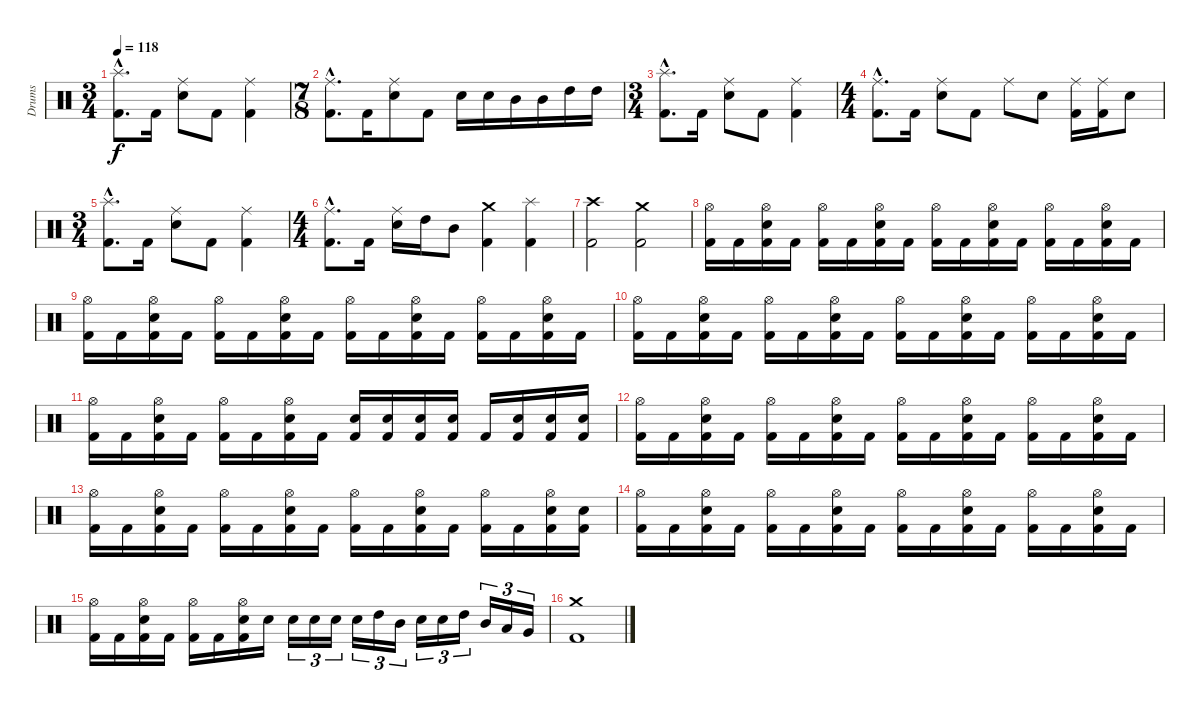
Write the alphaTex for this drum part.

\track ("Drums" "Drums") {instrument percussion}
\staff {score}
\articulation defaults
\ts (3 4)
\tempo 118
\clef neutral
\ks c
("Splash (hit)"{hac} "Kick (hit) 2"{hac}).8{d dy f} "Kick (hit) 2".16 ("Ride (middle)" "Snare (hit) 2").8 "Kick (hit) 2".8 ("Ride (middle)" "Kick (hit) 2").4 |
\ts (7 8)
("Ride (middle)"{hac} "Kick (hit) 2"{hac}).8{d} "Kick (hit) 2".16 ("Ride (middle)" "Snare (hit) 2").8 "Kick (hit) 2".8 "Snare (hit) 2".16 "Snare (hit) 2".16 "Mid Tom (hit)".16 "Mid Tom (hit)".16 "High Tom (hit)".16 "High Tom (hit)".16 |
\ts (3 4)
("Splash (hit)"{hac} "Kick (hit) 2"{hac}).8{d} "Kick (hit) 2".16 ("Ride (middle)" "Snare (hit) 2").8 "Kick (hit) 2".8 ("Ride (middle)" "Kick (hit) 2").4 |
\ts (4 4)
("Ride (middle)"{hac} "Kick (hit) 2"{hac}).8{d} "Kick (hit) 2".16 ("Ride (middle)" "Snare (hit) 2").8 "Kick (hit) 2".8 "Ride (middle)".8 "Snare (hit) 2".8 ("Ride (middle)" "Kick (hit) 2").16 ("Ride (middle)" "Kick (hit) 2").16 "Snare (hit) 2".8 |
\ts (3 4)
("Splash (hit)"{hac} "Kick (hit) 2"{hac}).8{d} "Kick (hit) 2".16 ("Ride (middle)" "Snare (hit) 2").8 "Kick (hit) 2".8 ("Ride (middle)" "Kick (hit) 2").4 |
\ts (4 4)
("Ride (middle)"{hac} "Kick (hit) 2"{hac}).8{d} "Kick (hit) 2".16 ("Ride (middle)" "Snare (hit) 2").16 "High Tom (hit)".16 "Mid Tom (hit)".8 ("Crash medium (hit)" "Kick (hit) 2").4 ("Splash (hit)" "Kick (hit) 2").4 |
("Crash high (hit)" "Kick (hit) 2").2 ("Crash medium (hit)" "Kick (hit) 2").2 |
("Hi-Hat (open)" "Kick (hit) 2").16 "Kick (hit) 2".16 ("Hi-Hat (open)" "Snare (hit) 2" "Kick (hit) 2").16 "Kick (hit) 2".16 ("Hi-Hat (open)" "Kick (hit) 2").16 "Kick (hit) 2".16 ("Hi-Hat (open)" "Snare (hit) 2" "Kick (hit) 2").16 "Kick (hit) 2".16 ("Hi-Hat (open)" "Kick (hit) 2").16 "Kick (hit) 2".16 ("Hi-Hat (open)" "Snare (hit) 2" "Kick (hit) 2").16 "Kick (hit) 2".16 ("Hi-Hat (open)" "Kick (hit) 2").16 "Kick (hit) 2".16 ("Hi-Hat (open)" "Snare (hit) 2" "Kick (hit) 2").16 "Kick (hit) 2".16 |
("Hi-Hat (open)" "Kick (hit) 2").16 "Kick (hit) 2".16 ("Hi-Hat (open)" "Snare (hit) 2" "Kick (hit) 2").16 "Kick (hit) 2".16 ("Hi-Hat (open)" "Kick (hit) 2").16 "Kick (hit) 2".16 ("Hi-Hat (open)" "Snare (hit) 2" "Kick (hit) 2").16 "Kick (hit) 2".16 ("Hi-Hat (open)" "Kick (hit) 2").16 "Kick (hit) 2".16 ("Hi-Hat (open)" "Snare (hit) 2" "Kick (hit) 2").16 "Kick (hit) 2".16 ("Hi-Hat (open)" "Kick (hit) 2").16 "Kick (hit) 2".16 ("Hi-Hat (open)" "Snare (hit) 2" "Kick (hit) 2").16 "Kick (hit) 2".16 |
("Hi-Hat (open)" "Kick (hit) 2").16 "Kick (hit) 2".16 ("Hi-Hat (open)" "Snare (hit) 2" "Kick (hit) 2").16 "Kick (hit) 2".16 ("Hi-Hat (open)" "Kick (hit) 2").16 "Kick (hit) 2".16 ("Hi-Hat (open)" "Snare (hit) 2" "Kick (hit) 2").16 "Kick (hit) 2".16 ("Hi-Hat (open)" "Kick (hit) 2").16 "Kick (hit) 2".16 ("Hi-Hat (open)" "Snare (hit) 2" "Kick (hit) 2").16 "Kick (hit) 2".16 ("Hi-Hat (open)" "Kick (hit) 2").16 "Kick (hit) 2".16 ("Hi-Hat (open)" "Snare (hit) 2" "Kick (hit) 2").16 "Kick (hit) 2".16 |
("Hi-Hat (open)" "Kick (hit) 2").16 "Kick (hit) 2".16 ("Hi-Hat (open)" "Snare (hit) 2" "Kick (hit) 2").16 "Kick (hit) 2".16 ("Hi-Hat (open)" "Kick (hit) 2").16 "Kick (hit) 2".16 ("Hi-Hat (open)" "Snare (hit) 2" "Kick (hit) 2").16 "Kick (hit) 2".16 ("Snare (hit) 2" "Kick (hit) 2").16 ("Snare (hit) 2" "Kick (hit) 2").16 ("Snare (hit) 2" "Kick (hit) 2").16 ("Snare (hit) 2" "Kick (hit) 2").16 "Kick (hit) 2".16 ("Snare (hit) 2" "Kick (hit) 2").16 ("Snare (hit) 2" "Kick (hit) 2").16 ("Snare (hit) 2" "Kick (hit) 2").16 |
("Hi-Hat (open)" "Kick (hit) 2").16 "Kick (hit) 2".16 ("Hi-Hat (open)" "Snare (hit) 2" "Kick (hit) 2").16 "Kick (hit) 2".16 ("Hi-Hat (open)" "Kick (hit) 2").16 "Kick (hit) 2".16 ("Hi-Hat (open)" "Snare (hit) 2" "Kick (hit) 2").16 "Kick (hit) 2".16 ("Hi-Hat (open)" "Kick (hit) 2").16 "Kick (hit) 2".16 ("Hi-Hat (open)" "Snare (hit) 2" "Kick (hit) 2").16 "Kick (hit) 2".16 ("Hi-Hat (open)" "Kick (hit) 2").16 "Kick (hit) 2".16 ("Hi-Hat (open)" "Snare (hit) 2" "Kick (hit) 2").16 "Kick (hit) 2".16 |
("Hi-Hat (open)" "Kick (hit) 2").16 "Kick (hit) 2".16 ("Hi-Hat (open)" "Snare (hit) 2" "Kick (hit) 2").16 "Kick (hit) 2".16 ("Hi-Hat (open)" "Kick (hit) 2").16 "Kick (hit) 2".16 ("Hi-Hat (open)" "Snare (hit) 2" "Kick (hit) 2").16 "Kick (hit) 2".16 ("Hi-Hat (open)" "Kick (hit) 2").16 "Kick (hit) 2".16 ("Hi-Hat (open)" "Snare (hit) 2" "Kick (hit) 2").16 "Kick (hit) 2".16 ("Hi-Hat (open)" "Kick (hit) 2").16 "Kick (hit) 2".16 ("Hi-Hat (open)" "Snare (hit) 2" "Kick (hit) 2").16 ("Snare (hit) 2" "Kick (hit) 2").16 |
("Hi-Hat (open)" "Kick (hit) 2").16 "Kick (hit) 2".16 ("Hi-Hat (open)" "Snare (hit) 2" "Kick (hit) 2").16 "Kick (hit) 2".16 ("Hi-Hat (open)" "Kick (hit) 2").16 "Kick (hit) 2".16 ("Hi-Hat (open)" "Snare (hit) 2" "Kick (hit) 2").16 "Kick (hit) 2".16 ("Hi-Hat (open)" "Kick (hit) 2").16 "Kick (hit) 2".16 ("Hi-Hat (open)" "Snare (hit) 2" "Kick (hit) 2").16 "Kick (hit) 2".16 ("Hi-Hat (open)" "Kick (hit) 2").16 "Kick (hit) 2".16 ("Hi-Hat (open)" "Snare (hit) 2" "Kick (hit) 2").16 "Kick (hit) 2".16 |
("Hi-Hat (open)" "Kick (hit) 2").16 "Kick (hit) 2".16 ("Hi-Hat (open)" "Snare (hit) 2" "Kick (hit) 2").16 "Kick (hit) 2".16 ("Hi-Hat (open)" "Kick (hit) 2").16 "Kick (hit) 2".16 ("Hi-Hat (open)" "Snare (hit) 2" "Kick (hit) 2").16 "Snare (hit) 2".16 "Snare (hit) 2".16{tu (3 2)} "Snare (hit) 2".16{tu (3 2)} "Snare (hit) 2".16{tu (3 2)} "Snare (hit) 2".16{tu (3 2)} "High Tom (hit)".16{tu (3 2)} "Mid Tom (hit)".16{tu (3 2)} "Snare (hit) 2".16{tu (3 2)} "Snare (hit) 2".16{tu (3 2)} "High Tom (hit)".16{tu (3 2)} "Mid Tom (hit)".16{tu (3 2)} "Low Tom (hit)".16{tu (3 2)} "Very Low Tom (hit)".16{tu (3 2)} |
("Crash medium (hit)" "Kick (hit) 2").1
